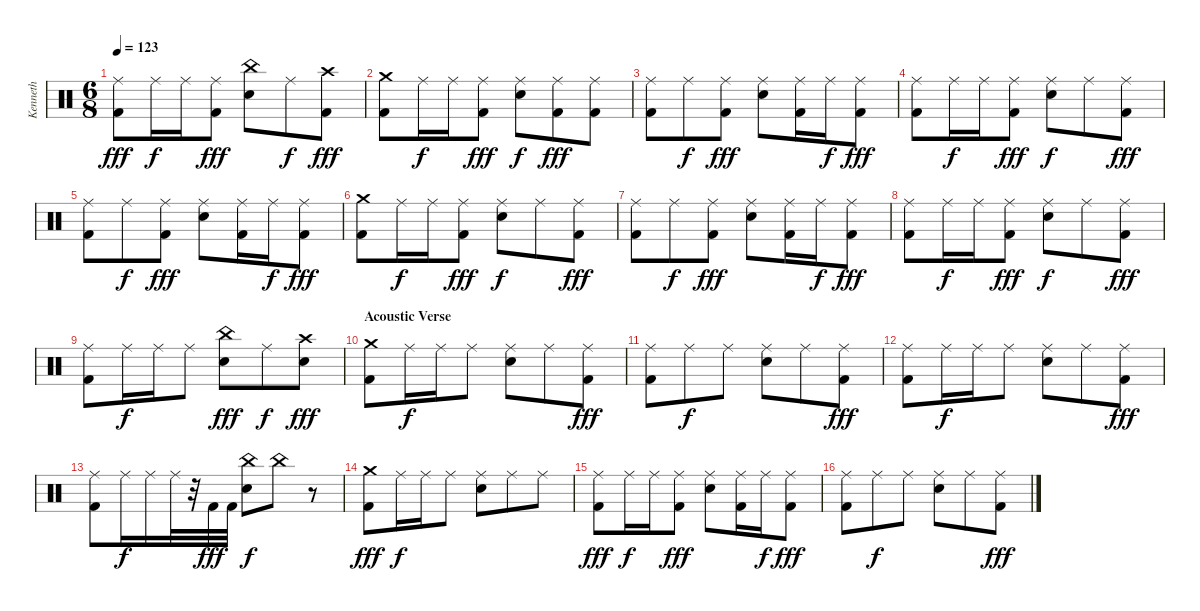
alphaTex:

\track ("Kenneth" "Kenneth") {instrument percussion}
\staff {score}
\articulation defaults
\ts (6 8)
\tempo 123
\clef neutral
\ks c
("Ride (middle)" "Kick (hit) 2").8{dy fff} "Ride (middle)".16{dy f} "Ride (middle)".16 ("Ride (middle)" "Kick (hit) 2").8{dy fff} ("China (hit)" "Snare (hit) 2").8 "Ride (middle)".8{dy f} ("Crash high (hit)" "Kick (hit) 2").8{dy fff} |
("Crash medium (hit)" "Kick (hit) 2").8 "Ride (middle)".16{dy f} "Ride (middle)".16 ("Ride (middle)" "Kick (hit) 2").8{dy fff} ("Ride (middle)" "Snare (hit) 2").8{dy f} ("Ride (middle)" "Kick (hit) 2").8{dy fff} ("Ride (middle)" "Kick (hit) 2").8 |
("Ride (middle)" "Kick (hit) 2").8 "Ride (middle)".8{dy f} ("Ride (middle)" "Kick (hit) 2").8{dy fff} ("Ride (middle)" "Snare (hit) 2").8 ("Ride (middle)" "Kick (hit) 2").16 "Ride (middle)".16{dy f} ("Ride (middle)" "Kick (hit) 2").8{dy fff} |
("Ride (middle)" "Kick (hit) 2").8 "Ride (middle)".16{dy f} "Ride (middle)".16 ("Ride (middle)" "Kick (hit) 2").8{dy fff} ("Ride (middle)" "Snare (hit) 2").8{dy f} "Ride (middle)".8 ("Ride (middle)" "Kick (hit) 2").8{dy fff} |
("Ride (middle)" "Kick (hit) 2").8 "Ride (middle)".8{dy f} ("Ride (middle)" "Kick (hit) 2").8{dy fff} ("Ride (middle)" "Snare (hit) 2").8 ("Ride (middle)" "Kick (hit) 2").16 "Ride (middle)".16{dy f} ("Ride (middle)" "Kick (hit) 2").8{dy fff} |
("Crash medium (hit)" "Kick (hit) 2").8 "Ride (middle)".16{dy f} "Ride (middle)".16 ("Ride (middle)" "Kick (hit) 2").8{dy fff} ("Ride (middle)" "Snare (hit) 2").8{dy f} "Ride (middle)".8 ("Ride (middle)" "Kick (hit) 2").8{dy fff} |
("Ride (middle)" "Kick (hit) 2").8 "Ride (middle)".8{dy f} ("Ride (middle)" "Kick (hit) 2").8{dy fff} ("Ride (middle)" "Snare (hit) 2").8 ("Ride (middle)" "Kick (hit) 2").16 "Ride (middle)".16{dy f} ("Ride (middle)" "Kick (hit) 2").8{dy fff} |
("Ride (middle)" "Kick (hit) 2").8 "Ride (middle)".16{dy f} "Ride (middle)".16 ("Ride (middle)" "Kick (hit) 2").8{dy fff} ("Ride (middle)" "Snare (hit) 2").8{dy f} "Ride (middle)".8 ("Ride (middle)" "Kick (hit) 2").8{dy fff} |
("Ride (middle)" "Kick (hit) 2").8 "Ride (middle)".16{dy f} "Ride (middle)".16 "Ride (middle)".8 ("China (hit)" "Snare (hit) 2").8{dy fff} "Ride (middle)".8{dy f} ("Crash high (hit)" "Snare (hit) 2").8{dy fff} |
\section ("" "Acoustic Verse")
("Crash medium (hit)" "Kick (hit) 2").8 "Ride (middle)".16{dy f} "Ride (middle)".16 "Ride (middle)".8 ("Ride (middle)" "Snare (hit) 2").8 "Ride (middle)".8 ("Ride (middle)" "Kick (hit) 2").8{dy fff} |
("Ride (middle)" "Kick (hit) 2").8 "Ride (middle)".8{dy f} "Ride (middle)".8 ("Ride (middle)" "Snare (hit) 2").8 "Ride (middle)".8 ("Ride (middle)" "Kick (hit) 2").8{dy fff} |
("Ride (middle)" "Kick (hit) 2").8 "Ride (middle)".16{dy f} "Ride (middle)".16 "Ride (middle)".8 ("Ride (middle)" "Snare (hit) 2").8 "Ride (middle)".8 ("Ride (middle)" "Kick (hit) 2").8{dy fff} |
("Ride (middle)" "Kick (hit) 2").8 "Ride (middle)".16{dy f} "Ride (middle)".16 "Ride (middle)".32 r.32 "Kick (hit) 2".32{dy fff} "Kick (hit) 2".32 ("China (hit)" "Snare (hit) 2").8{dy f} "China (hit)".8 r.8 |
("Crash medium (hit)" "Kick (hit) 2").8{dy fff} "Ride (middle)".16{dy f} "Ride (middle)".16 "Ride (middle)".8 ("Ride (middle)" "Snare (hit) 2").8 "Ride (middle)".8 "Ride (middle)".8 |
("Ride (middle)" "Kick (hit) 2").8{dy fff} "Ride (middle)".16{dy f} "Ride (middle)".16 ("Ride (middle)" "Kick (hit) 2").8{dy fff} ("Ride (middle)" "Snare (hit) 2").8 ("Ride (middle)" "Kick (hit) 2").16 "Ride (middle)".16{dy f} ("Ride (middle)" "Kick (hit) 2").8{dy fff} |
("Ride (middle)" "Kick (hit) 2").8 "Ride (middle)".8{dy f} "Ride (middle)".8 ("Ride (middle)" "Snare (hit) 2").8 "Ride (middle)".8 ("Ride (middle)" "Kick (hit) 2").8{dy fff}
